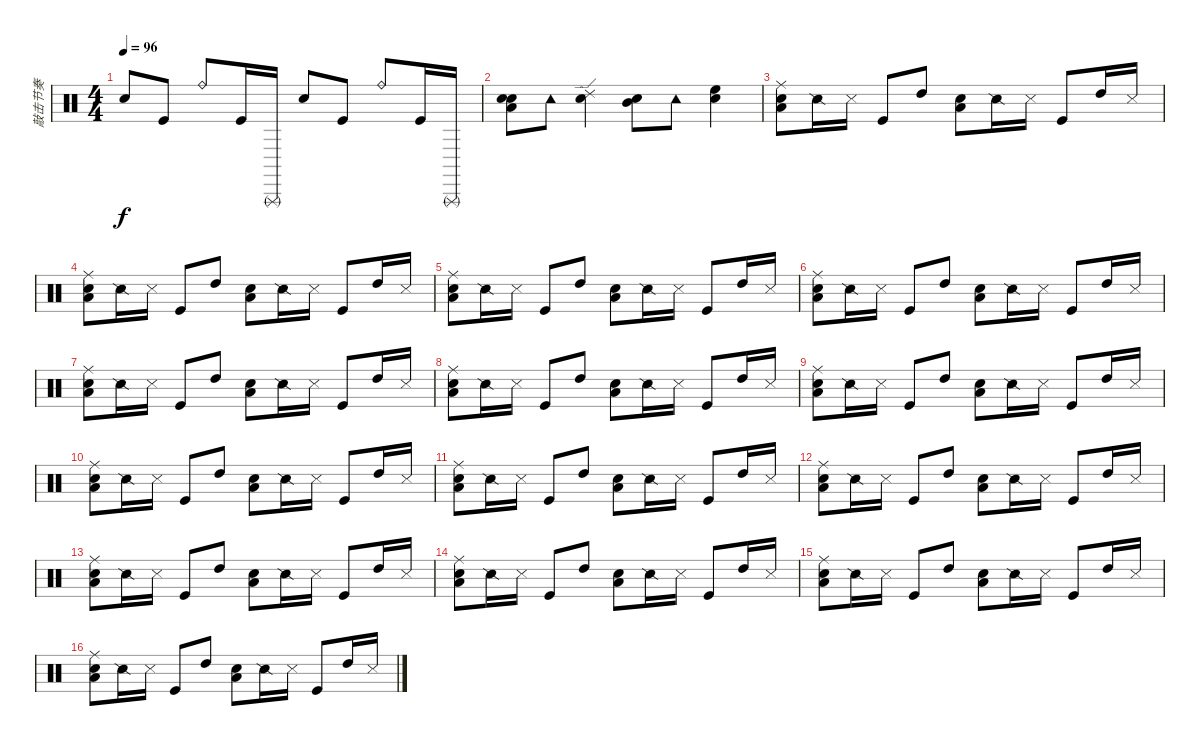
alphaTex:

\track ("敲击节奏" "敲击节奏") {instrument percussion}
\staff {score}
\articulation defaults
\ts (4 4)
\tempo 96
\clef neutral
\ks c "Snare (hit) 2".8{dy f} "Kick (hit)".8 "Ride (bell)".8 "Kick (hit)".16 "Triangle (rnute)".16 "Snare (hit) 2".8 "Kick (hit)".8 "Ride (bell)".8 "Kick (hit)".16 "Triangle (rnute)".16
|
("Snare (hit) 2" "Low Floor Tom (hit)" "Hand Clap (hit)").8 "Tambourine (hit)".8 ("Electric Snare (hit)" "Ride (edge) 2").4 ("Snare (hit) 2" "Mid Tom (hit)").8 "Tambourine (hit)".8 ("Electric Snare (hit)" "High Floor Tom (hit)").4 |
("Low Floor Tom (hit)" "Electric Snare (hit)" "Ride (middle)").8{volume 16} "Snare (side stick) 2".16 "Metronome (hit)".16 "Kick (hit)".8 "High Tom (hit)".8 ("Low Floor Tom (hit)" "Electric Snare (hit)").8 "Snare (side stick) 2".16 "Metronome (hit)".16 "Kick (hit)".8 "High Tom (hit)".16 "Metronome (hit)".16 |
("Low Floor Tom (hit)" "Electric Snare (hit)" "Ride (middle)").8 "Snare (side stick) 2".16 "Metronome (hit)".16 "Kick (hit)".8 "High Tom (hit)".8 ("Low Floor Tom (hit)" "Electric Snare (hit)").8 "Snare (side stick) 2".16 "Metronome (hit)".16 "Kick (hit)".8 "High Tom (hit)".16 "Metronome (hit)".16 |
("Low Floor Tom (hit)" "Electric Snare (hit)" "Ride (middle)").8 "Snare (side stick) 2".16 "Metronome (hit)".16 "Kick (hit)".8 "High Tom (hit)".8 ("Low Floor Tom (hit)" "Electric Snare (hit)").8 "Snare (side stick) 2".16 "Metronome (hit)".16 "Kick (hit)".8 "High Tom (hit)".16 "Metronome (hit)".16 |
("Low Floor Tom (hit)" "Electric Snare (hit)" "Ride (middle)").8 "Snare (side stick) 2".16 "Metronome (hit)".16 "Kick (hit)".8 "High Tom (hit)".8 ("Low Floor Tom (hit)" "Electric Snare (hit)").8 "Snare (side stick) 2".16 "Metronome (hit)".16 "Kick (hit)".8 "High Tom (hit)".16 "Metronome (hit)".16 |
("Low Floor Tom (hit)" "Electric Snare (hit)" "Ride (middle)").8 "Snare (side stick) 2".16 "Metronome (hit)".16 "Kick (hit)".8 "High Tom (hit)".8 ("Low Floor Tom (hit)" "Electric Snare (hit)").8 "Snare (side stick) 2".16 "Metronome (hit)".16 "Kick (hit)".8 "High Tom (hit)".16 "Metronome (hit)".16 |
("Low Floor Tom (hit)" "Electric Snare (hit)" "Ride (middle)").8 "Snare (side stick) 2".16 "Metronome (hit)".16 "Kick (hit)".8 "High Tom (hit)".8 ("Low Floor Tom (hit)" "Electric Snare (hit)").8 "Snare (side stick) 2".16 "Metronome (hit)".16 "Kick (hit)".8 "High Tom (hit)".16 "Metronome (hit)".16 |
("Low Floor Tom (hit)" "Electric Snare (hit)" "Ride (middle)").8 "Snare (side stick) 2".16 "Metronome (hit)".16 "Kick (hit)".8 "High Tom (hit)".8 ("Low Floor Tom (hit)" "Electric Snare (hit)").8 "Snare (side stick) 2".16 "Metronome (hit)".16 "Kick (hit)".8 "High Tom (hit)".16 "Metronome (hit)".16 |
("Low Floor Tom (hit)" "Electric Snare (hit)" "Ride (middle)").8 "Snare (side stick) 2".16 "Metronome (hit)".16 "Kick (hit)".8 "High Tom (hit)".8 ("Low Floor Tom (hit)" "Electric Snare (hit)").8 "Snare (side stick) 2".16 "Metronome (hit)".16 "Kick (hit)".8 "High Tom (hit)".16 "Metronome (hit)".16 |
("Low Floor Tom (hit)" "Electric Snare (hit)" "Ride (middle)").8 "Snare (side stick) 2".16 "Metronome (hit)".16 "Kick (hit)".8 "High Tom (hit)".8 ("Low Floor Tom (hit)" "Electric Snare (hit)").8 "Snare (side stick) 2".16 "Metronome (hit)".16 "Kick (hit)".8 "High Tom (hit)".16 "Metronome (hit)".16 |
("Low Floor Tom (hit)" "Electric Snare (hit)" "Ride (middle)").8 "Snare (side stick) 2".16 "Metronome (hit)".16 "Kick (hit)".8 "High Tom (hit)".8 ("Low Floor Tom (hit)" "Electric Snare (hit)").8 "Snare (side stick) 2".16 "Metronome (hit)".16 "Kick (hit)".8 "High Tom (hit)".16 "Metronome (hit)".16 |
("Low Floor Tom (hit)" "Electric Snare (hit)" "Ride (middle)").8 "Snare (side stick) 2".16 "Metronome (hit)".16 "Kick (hit)".8 "High Tom (hit)".8 ("Low Floor Tom (hit)" "Electric Snare (hit)").8 "Snare (side stick) 2".16 "Metronome (hit)".16 "Kick (hit)".8 "High Tom (hit)".16 "Metronome (hit)".16 |
("Low Floor Tom (hit)" "Electric Snare (hit)" "Ride (middle)").8 "Snare (side stick) 2".16 "Metronome (hit)".16 "Kick (hit)".8 "High Tom (hit)".8 ("Low Floor Tom (hit)" "Electric Snare (hit)").8 "Snare (side stick) 2".16 "Metronome (hit)".16 "Kick (hit)".8 "High Tom (hit)".16 "Metronome (hit)".16 |
("Low Floor Tom (hit)" "Electric Snare (hit)" "Ride (middle)").8 "Snare (side stick) 2".16 "Metronome (hit)".16 "Kick (hit)".8 "High Tom (hit)".8 ("Low Floor Tom (hit)" "Electric Snare (hit)").8 "Snare (side stick) 2".16 "Metronome (hit)".16 "Kick (hit)".8 "High Tom (hit)".16 "Metronome (hit)".16 |
("Low Floor Tom (hit)" "Electric Snare (hit)" "Ride (middle)").8 "Snare (side stick) 2".16 "Metronome (hit)".16 "Kick (hit)".8 "High Tom (hit)".8 ("Low Floor Tom (hit)" "Electric Snare (hit)").8 "Snare (side stick) 2".16 "Metronome (hit)".16 "Kick (hit)".8 "High Tom (hit)".16 "Metronome (hit)".16
